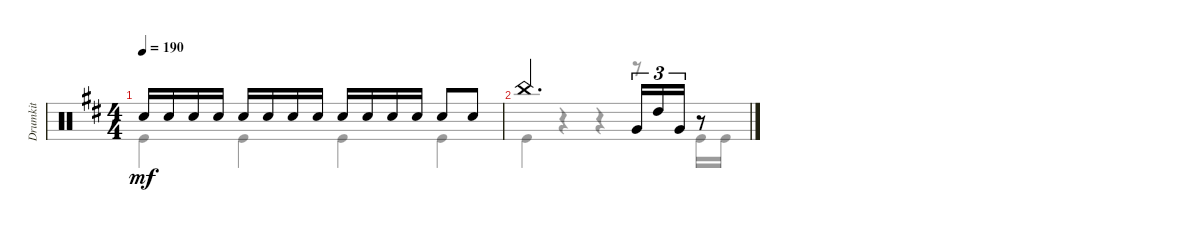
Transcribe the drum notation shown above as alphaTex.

\track ("Drumkit" "Drumkit") {instrument percussion}
\staff {score}
\articulation defaults
\voice
\ts (4 4)
\tempo 190
\clef neutral
\ks d "Snare (hit) 2".16{dy mf} "Snare (hit) 2".16 "Snare (hit) 2".16 "Snare (hit) 2".16 "Snare (hit) 2".16 "Snare (hit) 2".16 "Snare (hit) 2".16 "Snare (hit) 2".16 "Snare (hit) 2".16 "Snare (hit) 2".16 "Snare (hit) 2".16 "Snare (hit) 2".16 "Snare (hit) 2".8 "Snare (hit) 2".8
|
"China (hit)".2{d} "Very Low Tom (hit)".16{tu (3 2)} "High Tom (hit)".16{tu (3 2)} "Very Low Tom (hit)".16{tu (3 2)} r.8
\voice
\clef neutral
\ottava regular
\simile none
\ks d "Kick (hit)".4{dy mf} "Kick (hit)".4 "Kick (hit)".4 "Kick (hit)".4
|
"Kick (hit)".4 r.4 r.4 r.8 "Kick (hit)".16 "Kick (hit)".16
